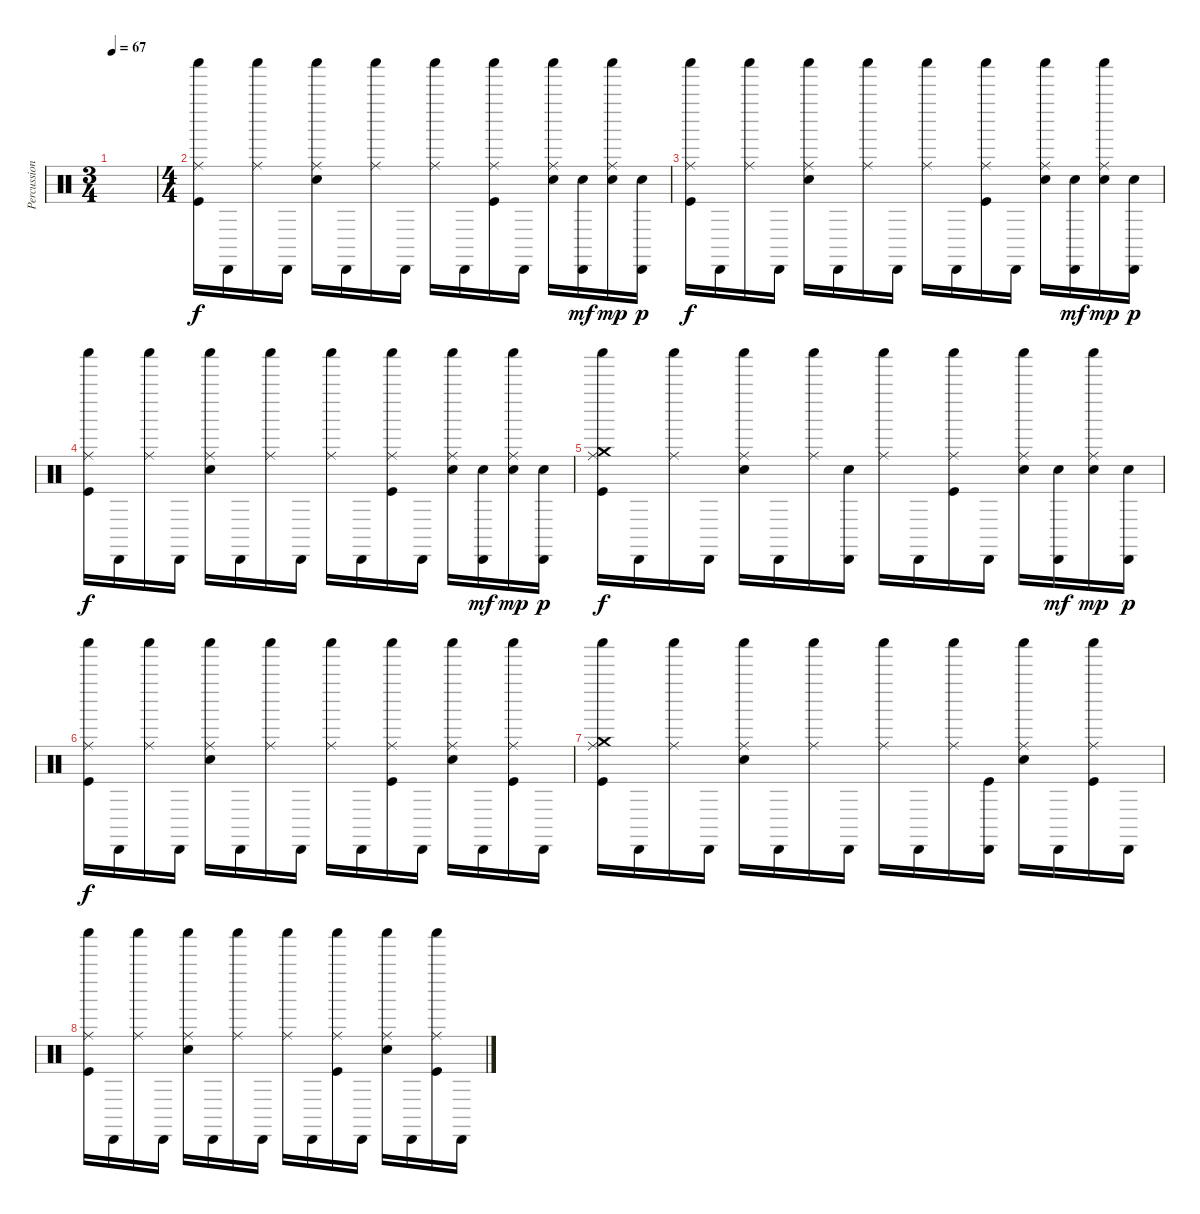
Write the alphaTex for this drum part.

\track ("Percussions" "Percussion") {instrument percussion}
\staff {score}
\articulation defaults
\ts (3 4)
\tempo 67
\clef neutral
\ks c
|
\ts (4 4)
("Shaker (hit)" "Ride (middle)" "Kick (hit)").16 "Cabasa (hit)".16 ("Shaker (hit)" "Ride (middle)").16 "Cabasa (hit)".16 ("Shaker (hit)" "Ride (middle)" "Snare (hit) 2").16 "Cabasa (hit)".16 ("Shaker (hit)" "Ride (middle)").16 "Cabasa (hit)".16 ("Shaker (hit)" "Ride (middle)").16 "Cabasa (hit)".16 ("Shaker (hit)" "Ride (middle)" "Kick (hit)").16 "Cabasa (hit)".16 ("Shaker (hit)" "Ride (middle)" "Snare (hit) 2").16 ("Cabasa (hit)" "Snare (hit) 2").16{dy mf} ("Shaker (hit)" "Ride (middle)" "Snare (hit) 2").16{dy mp} ("Cabasa (hit)" "Snare (hit) 2").16{dy p} |
("Shaker (hit)" "Ride (middle)" "Kick (hit)").16{dy f} "Cabasa (hit)".16 ("Shaker (hit)" "Ride (middle)").16 "Cabasa (hit)".16 ("Shaker (hit)" "Ride (middle)" "Snare (hit) 2").16 "Cabasa (hit)".16 ("Shaker (hit)" "Ride (middle)").16 "Cabasa (hit)".16 ("Shaker (hit)" "Ride (middle)").16 "Cabasa (hit)".16 ("Shaker (hit)" "Ride (middle)" "Kick (hit)").16 "Cabasa (hit)".16 ("Shaker (hit)" "Ride (middle)" "Snare (hit) 2").16 ("Cabasa (hit)" "Snare (hit) 2").16{dy mf} ("Shaker (hit)" "Ride (middle)" "Snare (hit) 2").16{dy mp} ("Cabasa (hit)" "Snare (hit) 2").16{dy p} |
("Shaker (hit)" "Ride (middle)" "Kick (hit)").16{dy f} "Cabasa (hit)".16 ("Shaker (hit)" "Ride (middle)").16 "Cabasa (hit)".16 ("Shaker (hit)" "Ride (middle)" "Snare (hit) 2").16 "Cabasa (hit)".16 ("Shaker (hit)" "Ride (middle)").16 "Cabasa (hit)".16 ("Shaker (hit)" "Ride (middle)").16 "Cabasa (hit)".16 ("Shaker (hit)" "Ride (middle)" "Kick (hit)").16 "Cabasa (hit)".16 ("Shaker (hit)" "Ride (middle)" "Snare (hit) 2").16 ("Cabasa (hit)" "Snare (hit) 2").16{dy mf} ("Shaker (hit)" "Ride (middle)" "Snare (hit) 2").16{dy mp} ("Cabasa (hit)" "Snare (hit) 2").16{dy p} |
("Shaker (hit)" "Ride (middle)" "Crash medium (hit)" "Kick (hit)").16{dy f} "Cabasa (hit)".16 ("Shaker (hit)" "Ride (middle)").16 "Cabasa (hit)".16 ("Shaker (hit)" "Ride (middle)" "Snare (hit) 2").16 "Cabasa (hit)".16 ("Shaker (hit)" "Ride (middle)").16 ("Cabasa (hit)" "Snare (hit) 2").16 ("Shaker (hit)" "Ride (middle)").16 "Cabasa (hit)".16 ("Shaker (hit)" "Ride (middle)" "Kick (hit)").16 "Cabasa (hit)".16 ("Shaker (hit)" "Ride (middle)" "Snare (hit) 2").16 ("Cabasa (hit)" "Snare (hit) 2").16{dy mf} ("Shaker (hit)" "Ride (middle)" "Snare (hit) 2").16{dy mp} ("Cabasa (hit)" "Snare (hit) 2").16{dy p} |
("Shaker (hit)" "Ride (middle)" "Kick (hit)").16{dy f} "Cabasa (hit)".16 ("Shaker (hit)" "Ride (middle)").16 "Cabasa (hit)".16 ("Shaker (hit)" "Ride (middle)" "Snare (hit) 2").16 "Cabasa (hit)".16 ("Shaker (hit)" "Ride (middle)").16 "Cabasa (hit)".16 ("Shaker (hit)" "Ride (middle)").16 "Cabasa (hit)".16 ("Shaker (hit)" "Ride (middle)" "Kick (hit)").16 "Cabasa (hit)".16 ("Shaker (hit)" "Ride (middle)" "Snare (hit) 2").16 "Cabasa (hit)".16 ("Shaker (hit)" "Ride (middle)" "Kick (hit)").16 "Cabasa (hit)".16 |
("Shaker (hit)" "Ride (middle)" "Crash medium (hit)" "Kick (hit)").16 "Cabasa (hit)".16 ("Shaker (hit)" "Ride (middle)").16 "Cabasa (hit)".16 ("Shaker (hit)" "Ride (middle)" "Snare (hit) 2").16 "Cabasa (hit)".16 ("Shaker (hit)" "Ride (middle)").16 "Cabasa (hit)".16 ("Shaker (hit)" "Ride (middle)").16 "Cabasa (hit)".16 ("Shaker (hit)" "Ride (middle)").16 ("Cabasa (hit)" "Kick (hit)").16 ("Shaker (hit)" "Ride (middle)" "Snare (hit) 2").16 "Cabasa (hit)".16 ("Shaker (hit)" "Ride (middle)" "Kick (hit)").16 "Cabasa (hit)".16 |
("Shaker (hit)" "Ride (middle)" "Kick (hit)").16 "Cabasa (hit)".16 ("Shaker (hit)" "Ride (middle)").16 "Cabasa (hit)".16 ("Shaker (hit)" "Ride (middle)" "Snare (hit) 2").16 "Cabasa (hit)".16 ("Shaker (hit)" "Ride (middle)").16 "Cabasa (hit)".16 ("Shaker (hit)" "Ride (middle)").16 "Cabasa (hit)".16 ("Shaker (hit)" "Ride (middle)" "Kick (hit)").16 "Cabasa (hit)".16 ("Shaker (hit)" "Ride (middle)" "Snare (hit) 2").16 "Cabasa (hit)".16 ("Shaker (hit)" "Ride (middle)" "Kick (hit)").16 "Cabasa (hit)".16
